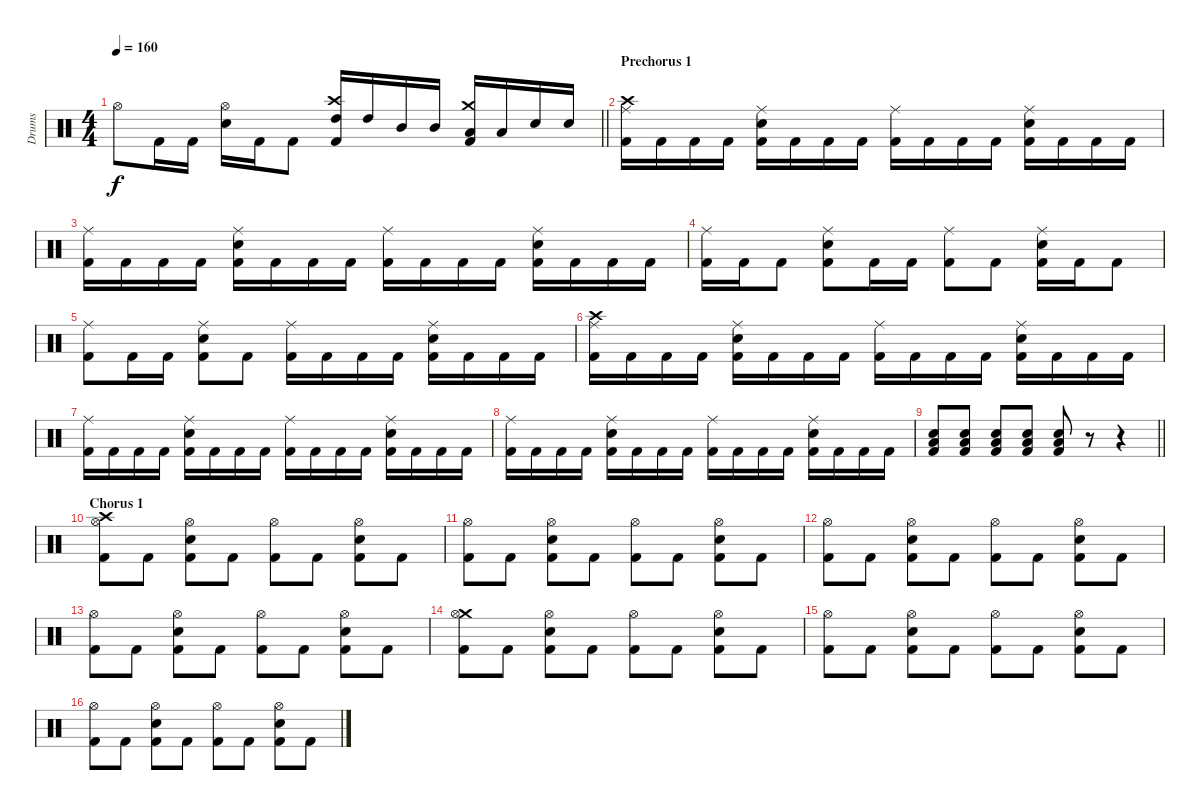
\track ("Drums" "Drums") {instrument percussion}
\staff {score}
\articulation defaults
\ts (4 4)
\tempo 160
\clef neutral
\barLineRight lightlight
\ks c "Hi-Hat (open)".8{dy f} "Kick (hit) 2".16 "Kick (hit) 2".16
("Hi-Hat (open)" "Snare (hit) 2").16 "Kick (hit) 2".16 "Kick (hit) 2".8 ("Crash high (hit)" "High Tom (hit)" "Kick (hit) 2").16 "High Tom (hit)".16 "Mid Tom (hit)".16 "Mid Tom (hit)".16 ("Crash medium (hit)" "Low Tom (hit)" "Kick (hit) 2").16 "Low Tom (hit)".16 "Snare (hit) 2".16 "Snare (hit) 2".16 |
\section ("" "Prechorus 1")
("Crash high (hit)" "Ride (middle)" "Kick (hit) 2").16 "Kick (hit) 2".16 "Kick (hit) 2".16 "Kick (hit) 2".16 ("Ride (middle)" "Snare (hit) 2" "Kick (hit) 2").16 "Kick (hit) 2".16 "Kick (hit) 2".16 "Kick (hit) 2".16 ("Ride (middle)" "Kick (hit) 2").16 "Kick (hit) 2".16 "Kick (hit) 2".16 "Kick (hit) 2".16 ("Ride (middle)" "Snare (hit) 2" "Kick (hit) 2").16 "Kick (hit) 2".16 "Kick (hit) 2".16 "Kick (hit) 2".16 |
("Ride (middle)" "Kick (hit) 2").16 "Kick (hit) 2".16 "Kick (hit) 2".16 "Kick (hit) 2".16 ("Ride (middle)" "Snare (hit) 2" "Kick (hit) 2").16 "Kick (hit) 2".16 "Kick (hit) 2".16 "Kick (hit) 2".16 ("Ride (middle)" "Kick (hit) 2").16 "Kick (hit) 2".16 "Kick (hit) 2".16 "Kick (hit) 2".16 ("Ride (middle)" "Snare (hit) 2" "Kick (hit) 2").16 "Kick (hit) 2".16 "Kick (hit) 2".16 "Kick (hit) 2".16 |
("Ride (middle)" "Kick (hit) 2").16 "Kick (hit) 2".16 "Kick (hit) 2".8 ("Ride (middle)" "Snare (hit) 2" "Kick (hit) 2").8 "Kick (hit) 2".16 "Kick (hit) 2".16 ("Ride (middle)" "Kick (hit) 2").8 "Kick (hit) 2".8 ("Ride (middle)" "Snare (hit) 2" "Kick (hit) 2").16 "Kick (hit) 2".16 "Kick (hit) 2".8 |
("Ride (middle)" "Kick (hit) 2").8 "Kick (hit) 2".16 "Kick (hit) 2".16 ("Ride (middle)" "Snare (hit) 2" "Kick (hit) 2").8 "Kick (hit) 2".8 ("Ride (middle)" "Kick (hit) 2").16 "Kick (hit) 2".16 "Kick (hit) 2".16 "Kick (hit) 2".16 ("Ride (middle)" "Snare (hit) 2" "Kick (hit) 2").16 "Kick (hit) 2".16 "Kick (hit) 2".16 "Kick (hit) 2".16 |
("Crash high (hit)" "Ride (middle)" "Kick (hit) 2").16 "Kick (hit) 2".16 "Kick (hit) 2".16 "Kick (hit) 2".16 ("Ride (middle)" "Snare (hit) 2" "Kick (hit) 2").16 "Kick (hit) 2".16 "Kick (hit) 2".16 "Kick (hit) 2".16 ("Ride (middle)" "Kick (hit) 2").16 "Kick (hit) 2".16 "Kick (hit) 2".16 "Kick (hit) 2".16 ("Ride (middle)" "Snare (hit) 2" "Kick (hit) 2").16 "Kick (hit) 2".16 "Kick (hit) 2".16 "Kick (hit) 2".16 |
("Ride (middle)" "Kick (hit) 2").16 "Kick (hit) 2".16 "Kick (hit) 2".16 "Kick (hit) 2".16 ("Ride (middle)" "Snare (hit) 2" "Kick (hit) 2").16 "Kick (hit) 2".16 "Kick (hit) 2".16 "Kick (hit) 2".16 ("Ride (middle)" "Kick (hit) 2").16 "Kick (hit) 2".16 "Kick (hit) 2".16 "Kick (hit) 2".16 ("Ride (middle)" "Snare (hit) 2" "Kick (hit) 2").16 "Kick (hit) 2".16 "Kick (hit) 2".16 "Kick (hit) 2".16 |
("Ride (middle)" "Kick (hit) 2").16 "Kick (hit) 2".16 "Kick (hit) 2".16 "Kick (hit) 2".16 ("Ride (middle)" "Snare (hit) 2" "Kick (hit) 2").16 "Kick (hit) 2".16 "Kick (hit) 2".16 "Kick (hit) 2".16 ("Ride (middle)" "Kick (hit) 2").16 "Kick (hit) 2".16 "Kick (hit) 2".16 "Kick (hit) 2".16 ("Ride (middle)" "Snare (hit) 2" "Kick (hit) 2").16 "Kick (hit) 2".16 "Kick (hit) 2".16 "Kick (hit) 2".16 |
\barLineRight lightlight
("Low Floor Tom (hit)" "Snare (hit) 2" "Kick (hit) 2").8 ("Low Floor Tom (hit)" "Snare (hit) 2" "Kick (hit) 2").8 ("Low Floor Tom (hit)" "Snare (hit) 2" "Kick (hit) 2").8 ("Low Floor Tom (hit)" "Snare (hit) 2" "Kick (hit) 2").8 ("Low Floor Tom (hit)" "Snare (hit) 2" "Kick (hit) 2").8 r.8 r.4 |
\section ("" "Chorus 1")
("Crash high (hit)" "Hi-Hat (open)" "Kick (hit) 2").8 "Kick (hit) 2".8 ("Hi-Hat (open)" "Snare (hit) 2" "Kick (hit) 2").8 "Kick (hit) 2".8 ("Hi-Hat (open)" "Kick (hit) 2").8 "Kick (hit) 2".8 ("Hi-Hat (open)" "Snare (hit) 2" "Kick (hit) 2").8 "Kick (hit) 2".8 |
("Hi-Hat (open)" "Kick (hit) 2").8 "Kick (hit) 2".8 ("Hi-Hat (open)" "Snare (hit) 2" "Kick (hit) 2").8 "Kick (hit) 2".8 ("Hi-Hat (open)" "Kick (hit) 2").8 "Kick (hit) 2".8 ("Hi-Hat (open)" "Snare (hit) 2" "Kick (hit) 2").8 "Kick (hit) 2".8 |
("Hi-Hat (open)" "Kick (hit) 2").8 "Kick (hit) 2".8 ("Hi-Hat (open)" "Snare (hit) 2" "Kick (hit) 2").8 "Kick (hit) 2".8 ("Hi-Hat (open)" "Kick (hit) 2").8 "Kick (hit) 2".8 ("Hi-Hat (open)" "Snare (hit) 2" "Kick (hit) 2").8 "Kick (hit) 2".8 |
("Hi-Hat (open)" "Kick (hit) 2").8 "Kick (hit) 2".8 ("Hi-Hat (open)" "Snare (hit) 2" "Kick (hit) 2").8 "Kick (hit) 2".8 ("Hi-Hat (open)" "Kick (hit) 2").8 "Kick (hit) 2".8 ("Hi-Hat (open)" "Snare (hit) 2" "Kick (hit) 2").8 "Kick (hit) 2".8 |
("Crash medium (hit)" "Hi-Hat (open)" "Kick (hit) 2").8 "Kick (hit) 2".8 ("Hi-Hat (open)" "Snare (hit) 2" "Kick (hit) 2").8 "Kick (hit) 2".8 ("Hi-Hat (open)" "Kick (hit) 2").8 "Kick (hit) 2".8 ("Hi-Hat (open)" "Snare (hit) 2" "Kick (hit) 2").8 "Kick (hit) 2".8 |
("Hi-Hat (open)" "Kick (hit) 2").8 "Kick (hit) 2".8 ("Hi-Hat (open)" "Snare (hit) 2" "Kick (hit) 2").8 "Kick (hit) 2".8 ("Hi-Hat (open)" "Kick (hit) 2").8 "Kick (hit) 2".8 ("Hi-Hat (open)" "Snare (hit) 2" "Kick (hit) 2").8 "Kick (hit) 2".8 |
("Hi-Hat (open)" "Kick (hit) 2").8 "Kick (hit) 2".8 ("Hi-Hat (open)" "Snare (hit) 2" "Kick (hit) 2").8 "Kick (hit) 2".8 ("Hi-Hat (open)" "Kick (hit) 2").8 "Kick (hit) 2".8 ("Hi-Hat (open)" "Snare (hit) 2" "Kick (hit) 2").8 "Kick (hit) 2".8
